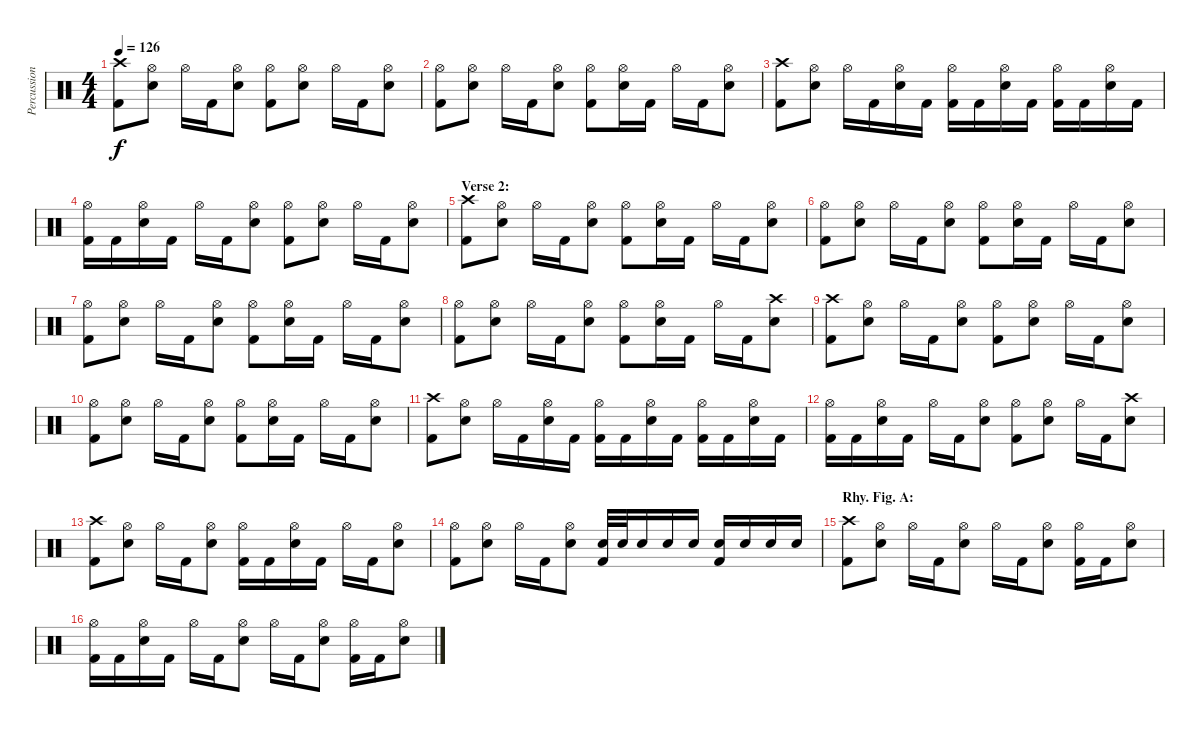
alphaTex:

\track ("Percussion" "Percussion") {instrument percussion}
\staff {score}
\articulation defaults
\ts (4 4)
\tempo 126
\clef neutral
\ks c
("Crash high (hit)" "Kick (hit) 2").8{dy f} ("Hi-Hat (open)" "Snare (hit) 2").8 "Hi-Hat (open)".16 "Kick (hit) 2".16 ("Hi-Hat (open)" "Snare (hit) 2").8 ("Hi-Hat (open)" "Kick (hit) 2").8 ("Hi-Hat (open)" "Snare (hit) 2").8 "Hi-Hat (open)".16 "Kick (hit) 2".16 ("Hi-Hat (open)" "Snare (hit) 2").8 |
("Hi-Hat (open)" "Kick (hit) 2").8 ("Hi-Hat (open)" "Snare (hit) 2").8 "Hi-Hat (open)".16 "Kick (hit) 2".16 ("Hi-Hat (open)" "Snare (hit) 2").8 ("Hi-Hat (open)" "Kick (hit) 2").8 ("Hi-Hat (open)" "Snare (hit) 2").16 "Kick (hit) 2".16 "Hi-Hat (open)".16 "Kick (hit) 2".16 ("Hi-Hat (open)" "Snare (hit) 2").8 |
("Crash high (hit)" "Kick (hit) 2").8 ("Hi-Hat (open)" "Snare (hit) 2").8 "Hi-Hat (open)".16 "Kick (hit) 2".16 ("Hi-Hat (open)" "Snare (hit) 2").16 "Kick (hit) 2".16 ("Hi-Hat (open)" "Kick (hit) 2").16 "Kick (hit) 2".16 ("Hi-Hat (open)" "Snare (hit) 2").16 "Kick (hit) 2".16 ("Hi-Hat (open)" "Kick (hit) 2").16 "Kick (hit) 2".16 ("Hi-Hat (open)" "Snare (hit) 2").16 "Kick (hit) 2".16 |
("Hi-Hat (open)" "Kick (hit) 2").16 "Kick (hit) 2".16 ("Hi-Hat (open)" "Snare (hit) 2").16 "Kick (hit) 2".16 "Hi-Hat (open)".16 "Kick (hit) 2".16 ("Hi-Hat (open)" "Snare (hit) 2").8 ("Hi-Hat (open)" "Kick (hit) 2").8 ("Hi-Hat (open)" "Snare (hit) 2").8 "Hi-Hat (open)".16 "Kick (hit) 2".16 ("Hi-Hat (open)" "Snare (hit) 2").8 |
\section ("" "Verse 2:")
("Crash high (hit)" "Kick (hit) 2").8 ("Hi-Hat (open)" "Snare (hit) 2").8 "Hi-Hat (open)".16 "Kick (hit) 2".16 ("Hi-Hat (open)" "Snare (hit) 2").8 ("Hi-Hat (open)" "Kick (hit) 2").8 ("Hi-Hat (open)" "Snare (hit) 2").16 "Kick (hit) 2".16 "Hi-Hat (open)".16 "Kick (hit) 2".16 ("Hi-Hat (open)" "Snare (hit) 2").8 |
("Hi-Hat (open)" "Kick (hit) 2").8 ("Hi-Hat (open)" "Snare (hit) 2").8 "Hi-Hat (open)".16 "Kick (hit) 2".16 ("Hi-Hat (open)" "Snare (hit) 2").8 ("Hi-Hat (open)" "Kick (hit) 2").8 ("Hi-Hat (open)" "Snare (hit) 2").16 "Kick (hit) 2".16 "Hi-Hat (open)".16 "Kick (hit) 2".16 ("Hi-Hat (open)" "Snare (hit) 2").8 |
("Hi-Hat (open)" "Kick (hit) 2").8 ("Hi-Hat (open)" "Snare (hit) 2").8 "Hi-Hat (open)".16 "Kick (hit) 2".16 ("Hi-Hat (open)" "Snare (hit) 2").8 ("Hi-Hat (open)" "Kick (hit) 2").8 ("Hi-Hat (open)" "Snare (hit) 2").16 "Kick (hit) 2".16 "Hi-Hat (open)".16 "Kick (hit) 2".16 ("Hi-Hat (open)" "Snare (hit) 2").8 |
("Hi-Hat (open)" "Kick (hit) 2").8 ("Hi-Hat (open)" "Snare (hit) 2").8 "Hi-Hat (open)".16 "Kick (hit) 2".16 ("Hi-Hat (open)" "Snare (hit) 2").8 ("Hi-Hat (open)" "Kick (hit) 2").8 ("Hi-Hat (open)" "Snare (hit) 2").16 "Kick (hit) 2".16 "Hi-Hat (open)".16 "Kick (hit) 2".16 ("Crash high (hit)" "Snare (hit) 2").8 |
("Crash high (hit)" "Kick (hit) 2").8 ("Hi-Hat (open)" "Snare (hit) 2").8 "Hi-Hat (open)".16 "Kick (hit) 2".16 ("Hi-Hat (open)" "Snare (hit) 2").8 ("Hi-Hat (open)" "Kick (hit) 2").8 ("Hi-Hat (open)" "Snare (hit) 2").8 "Hi-Hat (open)".16 "Kick (hit) 2".16 ("Hi-Hat (open)" "Snare (hit) 2").8 |
("Hi-Hat (open)" "Kick (hit) 2").8 ("Hi-Hat (open)" "Snare (hit) 2").8 "Hi-Hat (open)".16 "Kick (hit) 2".16 ("Hi-Hat (open)" "Snare (hit) 2").8 ("Hi-Hat (open)" "Kick (hit) 2").8 ("Hi-Hat (open)" "Snare (hit) 2").16 "Kick (hit) 2".16 "Hi-Hat (open)".16 "Kick (hit) 2".16 ("Hi-Hat (open)" "Snare (hit) 2").8 |
("Crash high (hit)" "Kick (hit) 2").8 ("Hi-Hat (open)" "Snare (hit) 2").8 "Hi-Hat (open)".16 "Kick (hit) 2".16 ("Hi-Hat (open)" "Snare (hit) 2").16 "Kick (hit) 2".16 ("Hi-Hat (open)" "Kick (hit) 2").16 "Kick (hit) 2".16 ("Hi-Hat (open)" "Snare (hit) 2").16 "Kick (hit) 2".16 ("Hi-Hat (open)" "Kick (hit) 2").16 "Kick (hit) 2".16 ("Hi-Hat (open)" "Snare (hit) 2").16 "Kick (hit) 2".16 |
("Hi-Hat (open)" "Kick (hit) 2").16 "Kick (hit) 2".16 ("Hi-Hat (open)" "Snare (hit) 2").16 "Kick (hit) 2".16 "Hi-Hat (open)".16 "Kick (hit) 2".16 ("Hi-Hat (open)" "Snare (hit) 2").8 ("Hi-Hat (open)" "Kick (hit) 2").8 ("Hi-Hat (open)" "Snare (hit) 2").8 "Hi-Hat (open)".16 "Kick (hit) 2".16 ("Crash high (hit)" "Snare (hit) 2").8 |
("Crash high (hit)" "Kick (hit) 2").8 ("Hi-Hat (open)" "Snare (hit) 2").8 "Hi-Hat (open)".16 "Kick (hit) 2".16 ("Hi-Hat (open)" "Snare (hit) 2").8 ("Hi-Hat (open)" "Kick (hit) 2").16 "Kick (hit) 2".16 ("Hi-Hat (open)" "Snare (hit) 2").16 "Kick (hit) 2".16 "Hi-Hat (open)".16 "Kick (hit) 2".16 ("Hi-Hat (open)" "Snare (hit) 2").8 |
("Hi-Hat (open)" "Kick (hit) 2").8 ("Hi-Hat (open)" "Snare (hit) 2").8 "Hi-Hat (open)".16 "Kick (hit) 2".16 ("Hi-Hat (open)" "Snare (hit) 2").8 ("Snare (hit) 2" "Kick (hit) 2").32 "Snare (hit) 2".32 "Snare (hit) 2".16 "Snare (hit) 2".16 "Snare (hit) 2".16 ("Snare (hit) 2" "Kick (hit) 2").16 "Snare (hit) 2".16 "Snare (hit) 2".16 "Snare (hit) 2".16 |
\section ("" "Rhy. Fig. A:")
("Crash high (hit)" "Kick (hit) 2").8 ("Hi-Hat (open)" "Snare (hit) 2").8 "Hi-Hat (open)".16 "Kick (hit) 2".16 ("Hi-Hat (open)" "Snare (hit) 2").8 "Hi-Hat (open)".16 "Kick (hit) 2".16 ("Hi-Hat (open)" "Snare (hit) 2").8 ("Hi-Hat (open)" "Kick (hit) 2").16 "Kick (hit) 2".16 ("Hi-Hat (open)" "Snare (hit) 2").8 |
("Hi-Hat (open)" "Kick (hit) 2").16 "Kick (hit) 2".16 ("Hi-Hat (open)" "Snare (hit) 2").16 "Kick (hit) 2".16 "Hi-Hat (open)".16 "Kick (hit) 2".16 ("Hi-Hat (open)" "Snare (hit) 2").8 "Hi-Hat (open)".16 "Kick (hit) 2".16 ("Hi-Hat (open)" "Snare (hit) 2").8 ("Hi-Hat (open)" "Kick (hit) 2").16 "Kick (hit) 2".16 ("Hi-Hat (open)" "Snare (hit) 2").8
